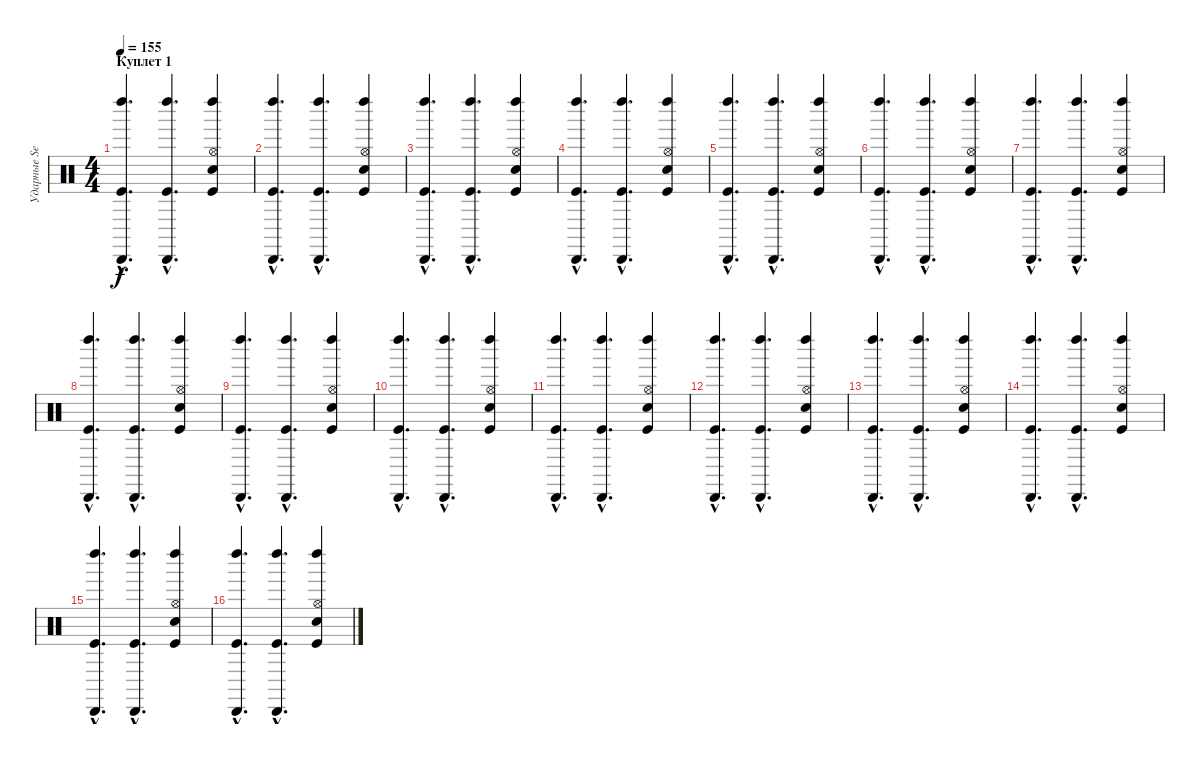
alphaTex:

\track ("Ударные Serge Petrone" "Ударные Se") {instrument percussion}
\staff {score}
\articulation defaults
\ts (4 4)
\section ("" "Куплет 1")
\tempo 155
\clef neutral
\ks c
("Cabasa (hit)"{hac} "Kick (hit)"{hac} "Left Maraca (hit)"{hac}).4{d dy f} ("Cabasa (hit)"{hac} "Kick (hit)"{hac} "Left Maraca (hit)"{hac}).4{d} ("Hi-Hat (open)" "Hand Clap (hit)" "Kick (hit)" "Left Maraca (hit)").4 |
("Cabasa (hit)"{hac} "Kick (hit)"{hac} "Left Maraca (hit)"{hac}).4{d} ("Cabasa (hit)"{hac} "Kick (hit)"{hac} "Left Maraca (hit)"{hac}).4{d} ("Hi-Hat (open)" "Hand Clap (hit)" "Kick (hit)" "Left Maraca (hit)").4 |
("Cabasa (hit)"{hac} "Kick (hit)"{hac} "Left Maraca (hit)"{hac}).4{d} ("Cabasa (hit)"{hac} "Kick (hit)"{hac} "Left Maraca (hit)"{hac}).4{d} ("Hi-Hat (open)" "Hand Clap (hit)" "Kick (hit)" "Left Maraca (hit)").4 |
("Cabasa (hit)"{hac} "Kick (hit)"{hac} "Left Maraca (hit)"{hac}).4{d} ("Cabasa (hit)"{hac} "Kick (hit)"{hac} "Left Maraca (hit)"{hac}).4{d} ("Hi-Hat (open)" "Hand Clap (hit)" "Kick (hit)" "Left Maraca (hit)").4 |
("Cabasa (hit)"{hac} "Kick (hit)"{hac} "Left Maraca (hit)"{hac}).4{d} ("Cabasa (hit)"{hac} "Kick (hit)"{hac} "Left Maraca (hit)"{hac}).4{d} ("Hi-Hat (open)" "Hand Clap (hit)" "Kick (hit)" "Left Maraca (hit)").4 |
("Cabasa (hit)"{hac} "Kick (hit)"{hac} "Left Maraca (hit)"{hac}).4{d} ("Cabasa (hit)"{hac} "Kick (hit)"{hac} "Left Maraca (hit)"{hac}).4{d} ("Hi-Hat (open)" "Hand Clap (hit)" "Kick (hit)" "Left Maraca (hit)").4 |
("Cabasa (hit)"{hac} "Kick (hit)"{hac} "Left Maraca (hit)"{hac}).4{d} ("Cabasa (hit)"{hac} "Kick (hit)"{hac} "Left Maraca (hit)"{hac}).4{d} ("Hi-Hat (open)" "Hand Clap (hit)" "Kick (hit)" "Left Maraca (hit)").4 |
("Cabasa (hit)"{hac} "Kick (hit)"{hac} "Left Maraca (hit)"{hac}).4{d} ("Cabasa (hit)"{hac} "Kick (hit)"{hac} "Left Maraca (hit)"{hac}).4{d} ("Hi-Hat (open)" "Hand Clap (hit)" "Kick (hit)" "Left Maraca (hit)").4 |
("Cabasa (hit)"{hac} "Kick (hit)"{hac} "Left Maraca (hit)"{hac}).4{d} ("Cabasa (hit)"{hac} "Kick (hit)"{hac} "Left Maraca (hit)"{hac}).4{d} ("Hi-Hat (open)" "Hand Clap (hit)" "Kick (hit)" "Left Maraca (hit)").4 |
("Cabasa (hit)"{hac} "Kick (hit)"{hac} "Left Maraca (hit)"{hac}).4{d} ("Cabasa (hit)"{hac} "Kick (hit)"{hac} "Left Maraca (hit)"{hac}).4{d} ("Hi-Hat (open)" "Hand Clap (hit)" "Kick (hit)" "Left Maraca (hit)").4 |
("Cabasa (hit)"{hac} "Kick (hit)"{hac} "Left Maraca (hit)"{hac}).4{d} ("Cabasa (hit)"{hac} "Kick (hit)"{hac} "Left Maraca (hit)"{hac}).4{d} ("Hi-Hat (open)" "Hand Clap (hit)" "Kick (hit)" "Left Maraca (hit)").4 |
("Cabasa (hit)"{hac} "Kick (hit)"{hac} "Left Maraca (hit)"{hac}).4{d} ("Cabasa (hit)"{hac} "Kick (hit)"{hac} "Left Maraca (hit)"{hac}).4{d} ("Hi-Hat (open)" "Hand Clap (hit)" "Kick (hit)" "Left Maraca (hit)").4 |
("Cabasa (hit)"{hac} "Kick (hit)"{hac} "Left Maraca (hit)"{hac}).4{d} ("Cabasa (hit)"{hac} "Kick (hit)"{hac} "Left Maraca (hit)"{hac}).4{d} ("Hi-Hat (open)" "Hand Clap (hit)" "Kick (hit)" "Left Maraca (hit)").4 |
("Cabasa (hit)"{hac} "Kick (hit)"{hac} "Left Maraca (hit)"{hac}).4{d} ("Cabasa (hit)"{hac} "Kick (hit)"{hac} "Left Maraca (hit)"{hac}).4{d} ("Hi-Hat (open)" "Hand Clap (hit)" "Kick (hit)" "Left Maraca (hit)").4 |
("Cabasa (hit)"{hac} "Kick (hit)"{hac} "Left Maraca (hit)"{hac}).4{d} ("Cabasa (hit)"{hac} "Kick (hit)"{hac} "Left Maraca (hit)"{hac}).4{d} ("Hi-Hat (open)" "Hand Clap (hit)" "Kick (hit)" "Left Maraca (hit)").4 |
("Cabasa (hit)"{hac} "Kick (hit)"{hac} "Left Maraca (hit)"{hac}).4{d} ("Cabasa (hit)"{hac} "Kick (hit)"{hac} "Left Maraca (hit)"{hac}).4{d} ("Hi-Hat (open)" "Hand Clap (hit)" "Kick (hit)" "Left Maraca (hit)").4
